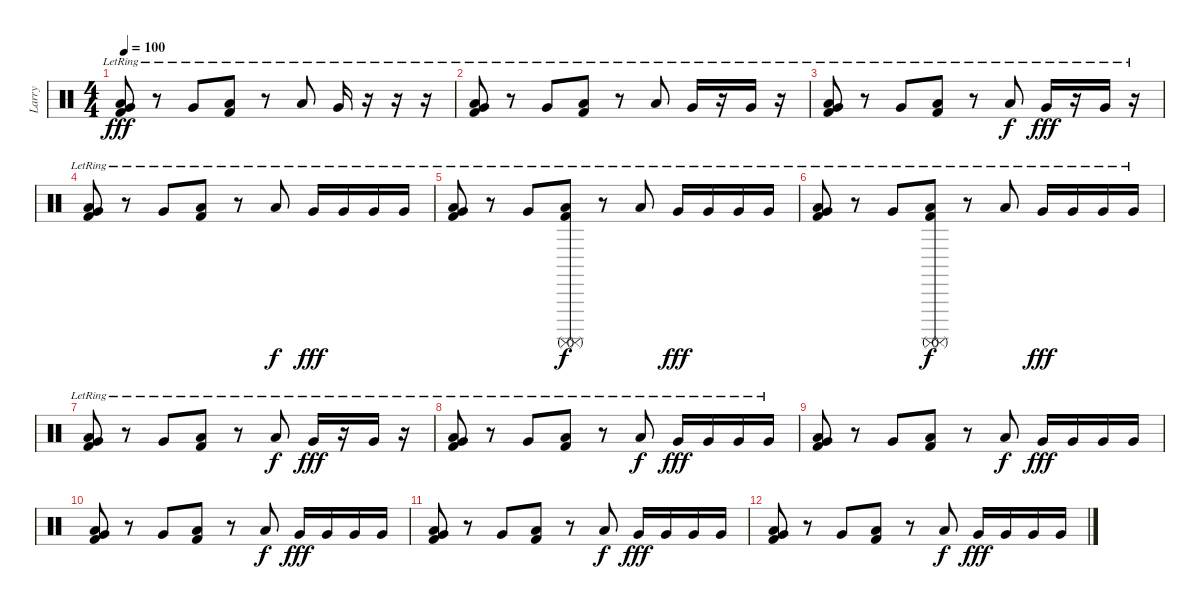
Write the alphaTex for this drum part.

\track ("Larry" "Larry") {instrument percussion}
\staff {score}
\articulation defaults
\ts (4 4)
\tempo 100
\clef neutral
\ks c
("Low Floor Tom (hit)"{lr} "Very Low Tom (hit)"{lr} "Kick (hit) 2"{lr}).8{dy fff} r.8 "Very Low Tom (hit)"{lr}.8 ("Low Floor Tom (hit)"{lr} "Kick (hit) 2"{lr}).8 r.8 "Low Floor Tom (hit)"{lr}.8 "Very Low Tom (hit)"{lr}.16 r.16 r.16 r.16 |
("Low Floor Tom (hit)"{lr} "Very Low Tom (hit)"{lr} "Kick (hit) 2"{lr}).8 r.8 "Very Low Tom (hit)"{lr}.8 ("Low Floor Tom (hit)"{lr} "Kick (hit) 2"{lr}).8 r.8 "Low Floor Tom (hit)"{lr}.8 "Very Low Tom (hit)"{lr}.16 r.16 "Very Low Tom (hit)"{lr}.16 r.16 |
("Low Floor Tom (hit)"{lr} "Very Low Tom (hit)"{lr} "Kick (hit) 2"{lr}).8 r.8 "Very Low Tom (hit)"{lr}.8 ("Low Floor Tom (hit)"{lr} "Kick (hit) 2"{lr}).8 r.8 "Low Floor Tom (hit)"{lr}.8{dy f} "Very Low Tom (hit)"{lr}.16{dy fff} r.16 "Very Low Tom (hit)"{lr}.16 r.16 |
("Low Floor Tom (hit)"{lr} "Very Low Tom (hit)"{lr} "Kick (hit) 2"{lr}).8 r.8 "Very Low Tom (hit)"{lr}.8 ("Low Floor Tom (hit)"{lr} "Kick (hit) 2"{lr}).8 r.8 "Low Floor Tom (hit)"{lr}.8{dy f} "Very Low Tom (hit)"{lr}.16{dy fff} "Very Low Tom (hit)"{lr}.16 "Very Low Tom (hit)"{lr}.16 "Very Low Tom (hit)"{lr}.16 |
("Low Floor Tom (hit)"{lr} "Very Low Tom (hit)"{lr} "Kick (hit) 2"{lr}).8 r.8 "Very Low Tom (hit)"{lr}.8 ("Low Floor Tom (hit)" "Kick (hit) 2" "Surdo (mute)"{lr} "Surdo (mute)").8{dy f volume 16} r.8{volume 13} "Low Floor Tom (hit)"{lr}.8 "Very Low Tom (hit)"{lr}.16{dy fff} "Very Low Tom (hit)"{lr}.16 "Very Low Tom (hit)"{lr}.16 "Very Low Tom (hit)"{lr}.16 |
("Low Floor Tom (hit)"{lr} "Very Low Tom (hit)"{lr} "Kick (hit) 2"{lr}).8 r.8 "Very Low Tom (hit)"{lr}.8 ("Low Floor Tom (hit)" "Kick (hit) 2" "Surdo (mute)"{lr} "Surdo (mute)").8{dy f volume 16} r.8{volume 13} "Low Floor Tom (hit)"{lr}.8 "Very Low Tom (hit)"{lr}.16{dy fff} "Very Low Tom (hit)"{lr}.16 "Very Low Tom (hit)"{lr}.16 "Very Low Tom (hit)"{lr}.16 |
("Low Floor Tom (hit)"{lr} "Very Low Tom (hit)"{lr} "Kick (hit) 2"{lr}).8 r.8 "Very Low Tom (hit)"{lr}.8 ("Low Floor Tom (hit)"{lr} "Kick (hit) 2"{lr}).8 r.8 "Low Floor Tom (hit)"{lr}.8{dy f} "Very Low Tom (hit)"{lr}.16{dy fff} r.16 "Very Low Tom (hit)"{lr}.16 r.16 |
("Low Floor Tom (hit)"{lr} "Very Low Tom (hit)"{lr} "Kick (hit) 2"{lr}).8 r.8 "Very Low Tom (hit)"{lr}.8 ("Low Floor Tom (hit)"{lr} "Kick (hit) 2"{lr}).8 r.8 "Low Floor Tom (hit)"{lr}.8{dy f} "Very Low Tom (hit)"{lr}.16{dy fff} "Very Low Tom (hit)"{lr}.16 "Very Low Tom (hit)"{lr}.16 "Very Low Tom (hit)"{lr}.16 |
("Low Floor Tom (hit)"{pm} "Very Low Tom (hit)"{pm} "Kick (hit) 2"{pm}).8{volume 7} r.8 "Very Low Tom (hit)"{pm}.8 ("Low Floor Tom (hit)"{pm} "Kick (hit) 2"{pm}).8 r.8 "Low Floor Tom (hit)"{pm}.8{dy f} "Very Low Tom (hit)"{pm}.16{dy fff} "Very Low Tom (hit)"{pm}.16 "Very Low Tom (hit)"{pm}.16 "Very Low Tom (hit)"{pm}.16 |
("Low Floor Tom (hit)"{pm} "Very Low Tom (hit)"{pm} "Kick (hit) 2"{pm}).8 r.8 "Very Low Tom (hit)"{pm}.8 ("Low Floor Tom (hit)"{pm} "Kick (hit) 2"{pm}).8 r.8 "Low Floor Tom (hit)"{pm}.8{dy f} "Very Low Tom (hit)"{pm}.16{dy fff} "Very Low Tom (hit)"{pm}.16 "Very Low Tom (hit)"{pm}.16 "Very Low Tom (hit)"{pm}.16 |
("Low Floor Tom (hit)"{pm} "Very Low Tom (hit)"{pm} "Kick (hit) 2"{pm}).8 r.8 "Very Low Tom (hit)"{pm}.8 ("Low Floor Tom (hit)"{pm} "Kick (hit) 2"{pm}).8 r.8 "Low Floor Tom (hit)"{pm}.8{dy f} "Very Low Tom (hit)"{pm}.16{dy fff} "Very Low Tom (hit)"{pm}.16 "Very Low Tom (hit)"{pm}.16 "Very Low Tom (hit)"{pm}.16 |
("Low Floor Tom (hit)"{pm} "Very Low Tom (hit)"{pm} "Kick (hit) 2"{pm}).8 r.8 "Very Low Tom (hit)"{pm}.8 ("Low Floor Tom (hit)"{pm} "Kick (hit) 2"{pm}).8 r.8 "Low Floor Tom (hit)"{pm}.8{dy f} "Very Low Tom (hit)"{pm}.16{dy fff} "Very Low Tom (hit)"{pm}.16 "Very Low Tom (hit)"{pm}.16 "Very Low Tom (hit)"{pm}.16
